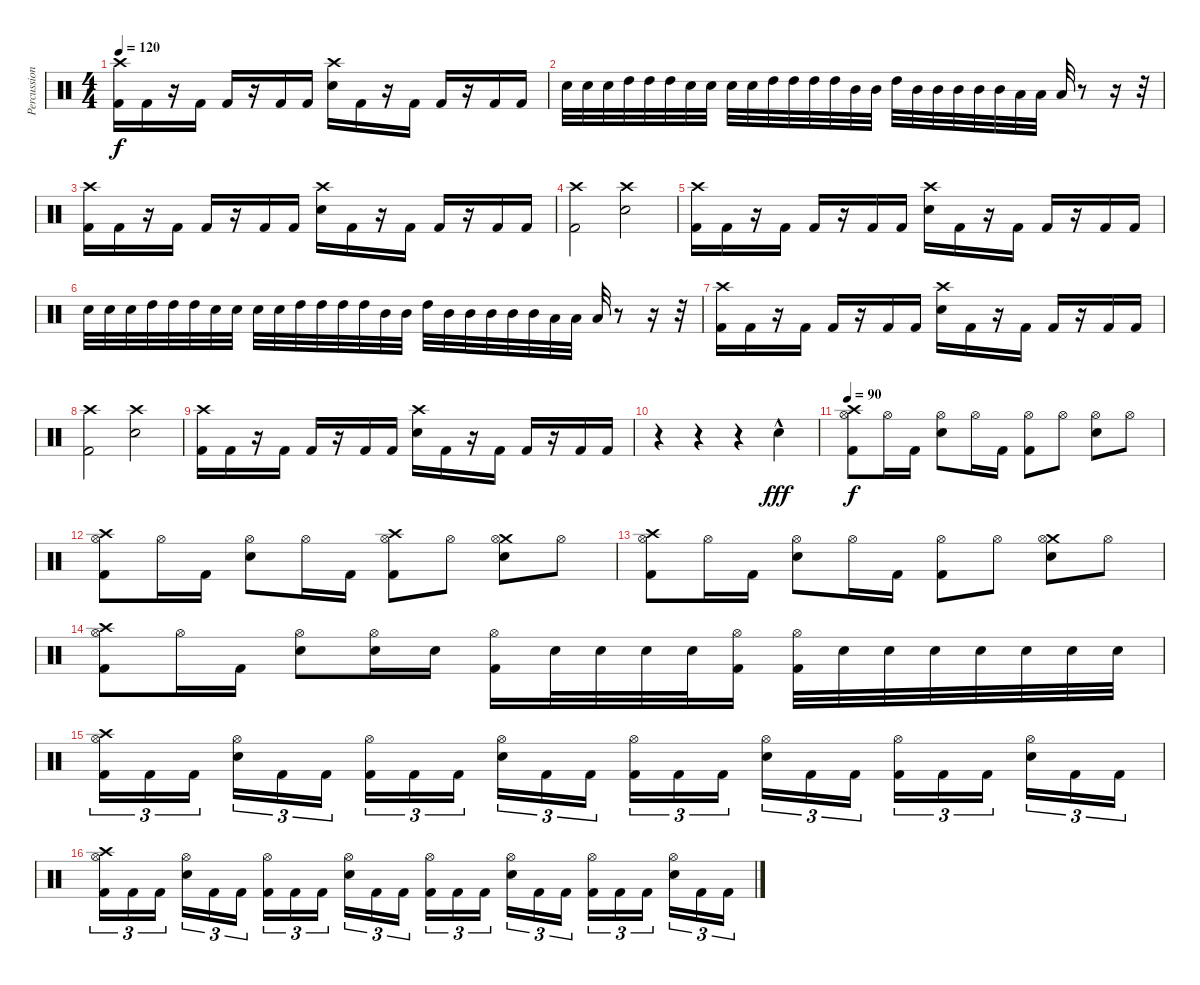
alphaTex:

\track ("Percussion" "Percussion") {instrument percussion}
\staff {score}
\articulation defaults
\ts (4 4)
\tempo 120
\clef neutral
\ks c
("Kick (hit) 2" "Crash high (hit)").16{dy f} "Kick (hit) 2".16 r.16 "Kick (hit) 2".16 "Kick (hit) 2".16 r.16 "Kick (hit) 2".16 "Kick (hit) 2".16 ("Snare (hit) 2" "Crash high (hit)").16 "Kick (hit) 2".16 r.16 "Kick (hit) 2".16 "Kick (hit) 2".16 r.16 "Kick (hit) 2".16 "Kick (hit) 2".16 |
"Snare (hit) 2".32 "Snare (hit) 2".32 "Snare (hit) 2".32 "High Tom (hit)".32 "High Tom (hit)".32 "High Tom (hit)".32 "Snare (hit) 2".32 "Snare (hit) 2".32 "Snare (hit) 2".32 "Snare (hit) 2".32 "High Tom (hit)".32 "High Tom (hit)".32 "High Tom (hit)".32 "High Tom (hit)".32 "Mid Tom (hit)".32 "Mid Tom (hit)".32 "High Tom (hit)".32 "Mid Tom (hit)".32 "Mid Tom (hit)".32 "Mid Tom (hit)".32 "Mid Tom (hit)".32 "Mid Tom (hit)".32 "Low Tom (hit)".32 "Low Tom (hit)".32 "Low Tom (hit)".32 r.8 r.16 r.32 |
("Kick (hit) 2" "Crash high (hit)").16 "Kick (hit) 2".16 r.16 "Kick (hit) 2".16 "Kick (hit) 2".16 r.16 "Kick (hit) 2".16 "Kick (hit) 2".16 ("Snare (hit) 2" "Crash high (hit)").16 "Kick (hit) 2".16 r.16 "Kick (hit) 2".16 "Kick (hit) 2".16 r.16 "Kick (hit) 2".16 "Kick (hit) 2".16 |
("Crash high (hit)" "Kick (hit) 2").2 ("Crash high (hit)" "Snare (hit) 2").2 |
("Kick (hit) 2" "Crash high (hit)").16 "Kick (hit) 2".16 r.16 "Kick (hit) 2".16 "Kick (hit) 2".16 r.16 "Kick (hit) 2".16 "Kick (hit) 2".16 ("Snare (hit) 2" "Crash high (hit)").16 "Kick (hit) 2".16 r.16 "Kick (hit) 2".16 "Kick (hit) 2".16 r.16 "Kick (hit) 2".16 "Kick (hit) 2".16 |
"Snare (hit) 2".32 "Snare (hit) 2".32 "Snare (hit) 2".32 "High Tom (hit)".32 "High Tom (hit)".32 "High Tom (hit)".32 "Snare (hit) 2".32 "Snare (hit) 2".32 "Snare (hit) 2".32 "Snare (hit) 2".32 "High Tom (hit)".32 "High Tom (hit)".32 "High Tom (hit)".32 "High Tom (hit)".32 "Mid Tom (hit)".32 "Mid Tom (hit)".32 "High Tom (hit)".32 "Mid Tom (hit)".32 "Mid Tom (hit)".32 "Mid Tom (hit)".32 "Mid Tom (hit)".32 "Mid Tom (hit)".32 "Low Tom (hit)".32 "Low Tom (hit)".32 "Low Tom (hit)".32 r.8 r.16 r.32 |
("Kick (hit) 2" "Crash high (hit)").16 "Kick (hit) 2".16 r.16 "Kick (hit) 2".16 "Kick (hit) 2".16 r.16 "Kick (hit) 2".16 "Kick (hit) 2".16 ("Snare (hit) 2" "Crash high (hit)").16 "Kick (hit) 2".16 r.16 "Kick (hit) 2".16 "Kick (hit) 2".16 r.16 "Kick (hit) 2".16 "Kick (hit) 2".16 |
("Crash high (hit)" "Kick (hit) 2").2 ("Crash high (hit)" "Snare (hit) 2").2 |
("Kick (hit) 2" "Crash high (hit)").16 "Kick (hit) 2".16 r.16 "Kick (hit) 2".16 "Kick (hit) 2".16 r.16 "Kick (hit) 2".16 "Kick (hit) 2".16 ("Snare (hit) 2" "Crash high (hit)").16 "Kick (hit) 2".16 r.16 "Kick (hit) 2".16 "Kick (hit) 2".16 r.16 "Kick (hit) 2".16 "Kick (hit) 2".16 |
r.4 r.4 r.4 "Snare (hit) 2"{hac}.4{dy fff} |
\tempo 90
("Crash high (hit)" "Hi-Hat (open)" "Kick (hit) 2").8{dy f} "Hi-Hat (open)".16 "Kick (hit) 2".16 ("Hi-Hat (open)" "Snare (hit) 2").8 "Hi-Hat (open)".16 "Kick (hit) 2".16 ("Hi-Hat (open)" "Kick (hit) 2").8 "Hi-Hat (open)".8 ("Hi-Hat (open)" "Snare (hit) 2").8 "Hi-Hat (open)".8 |
("Crash high (hit)" "Hi-Hat (open)" "Kick (hit) 2").8 "Hi-Hat (open)".16 "Kick (hit) 2".16 ("Hi-Hat (open)" "Snare (hit) 2").8 "Hi-Hat (open)".16 "Kick (hit) 2".16 ("Crash high (hit)" "Hi-Hat (open)" "Kick (hit) 2").8 "Hi-Hat (open)".8 ("Crash medium (hit)" "Hi-Hat (open)" "Snare (hit) 2").8 "Hi-Hat (open)".8 |
("Crash high (hit)" "Hi-Hat (open)" "Kick (hit) 2").8 "Hi-Hat (open)".16 "Kick (hit) 2".16 ("Hi-Hat (open)" "Snare (hit) 2").8 "Hi-Hat (open)".16 "Kick (hit) 2".16 ("Hi-Hat (open)" "Kick (hit) 2").8 "Hi-Hat (open)".8 ("Crash medium (hit)" "Hi-Hat (open)" "Snare (hit) 2").8 "Hi-Hat (open)".8 |
("Crash high (hit)" "Hi-Hat (open)" "Kick (hit) 2").8 "Hi-Hat (open)".16 "Kick (hit) 2".16 ("Hi-Hat (open)" "Snare (hit) 2").8 ("Hi-Hat (open)" "Snare (hit) 2").16 "Snare (hit) 2".16 ("Hi-Hat (open)" "Kick (hit) 2").16 "Snare (hit) 2".32 "Snare (hit) 2".32 "Snare (hit) 2".32 "Snare (hit) 2".32 ("Hi-Hat (open)" "Kick (hit) 2").16 ("Hi-Hat (open)" "Kick (hit) 2").32 "Snare (hit) 2".32 "Snare (hit) 2".32 "Snare (hit) 2".32 "Snare (hit) 2".32 "Snare (hit) 2".32 "Snare (hit) 2".32 "Snare (hit) 2".32 |
("Crash high (hit)" "Hi-Hat (open)" "Kick (hit) 2").16{tu (3 2)} "Kick (hit) 2".16{tu (3 2)} "Kick (hit) 2".16{tu (3 2) beam splitsecondary} ("Hi-Hat (open)" "Snare (hit) 2").16{tu (3 2)} "Kick (hit) 2".16{tu (3 2)} "Kick (hit) 2".16{tu (3 2)} ("Hi-Hat (open)" "Kick (hit) 2").16{tu (3 2)} "Kick (hit) 2".16{tu (3 2)} "Kick (hit) 2".16{tu (3 2) beam splitsecondary} ("Hi-Hat (open)" "Snare (hit) 2").16{tu (3 2)} "Kick (hit) 2".16{tu (3 2)} "Kick (hit) 2".16{tu (3 2)} ("Hi-Hat (open)" "Kick (hit) 2").16{tu (3 2)} "Kick (hit) 2".16{tu (3 2)} "Kick (hit) 2".16{tu (3 2) beam splitsecondary} ("Hi-Hat (open)" "Snare (hit) 2").16{tu (3 2)} "Kick (hit) 2".16{tu (3 2)} "Kick (hit) 2".16{tu (3 2)} ("Hi-Hat (open)" "Kick (hit) 2").16{tu (3 2)} "Kick (hit) 2".16{tu (3 2)} "Kick (hit) 2".16{tu (3 2) beam splitsecondary} ("Hi-Hat (open)" "Snare (hit) 2").16{tu (3 2)} "Kick (hit) 2".16{tu (3 2)} "Kick (hit) 2".16{tu (3 2)} |
("Crash high (hit)" "Hi-Hat (open)" "Kick (hit) 2").16{tu (3 2)} "Kick (hit) 2".16{tu (3 2)} "Kick (hit) 2".16{tu (3 2) beam splitsecondary} ("Hi-Hat (open)" "Snare (hit) 2").16{tu (3 2)} "Kick (hit) 2".16{tu (3 2)} "Kick (hit) 2".16{tu (3 2)} ("Hi-Hat (open)" "Kick (hit) 2").16{tu (3 2)} "Kick (hit) 2".16{tu (3 2)} "Kick (hit) 2".16{tu (3 2) beam splitsecondary} ("Hi-Hat (open)" "Snare (hit) 2").16{tu (3 2)} "Kick (hit) 2".16{tu (3 2)} "Kick (hit) 2".16{tu (3 2)} ("Hi-Hat (open)" "Kick (hit) 2").16{tu (3 2)} "Kick (hit) 2".16{tu (3 2)} "Kick (hit) 2".16{tu (3 2) beam splitsecondary} ("Hi-Hat (open)" "Snare (hit) 2").16{tu (3 2)} "Kick (hit) 2".16{tu (3 2)} "Kick (hit) 2".16{tu (3 2)} ("Hi-Hat (open)" "Kick (hit) 2").16{tu (3 2)} "Kick (hit) 2".16{tu (3 2)} "Kick (hit) 2".16{tu (3 2) beam splitsecondary} ("Hi-Hat (open)" "Snare (hit) 2").16{tu (3 2)} "Kick (hit) 2".16{tu (3 2)} "Kick (hit) 2".16{tu (3 2)}
